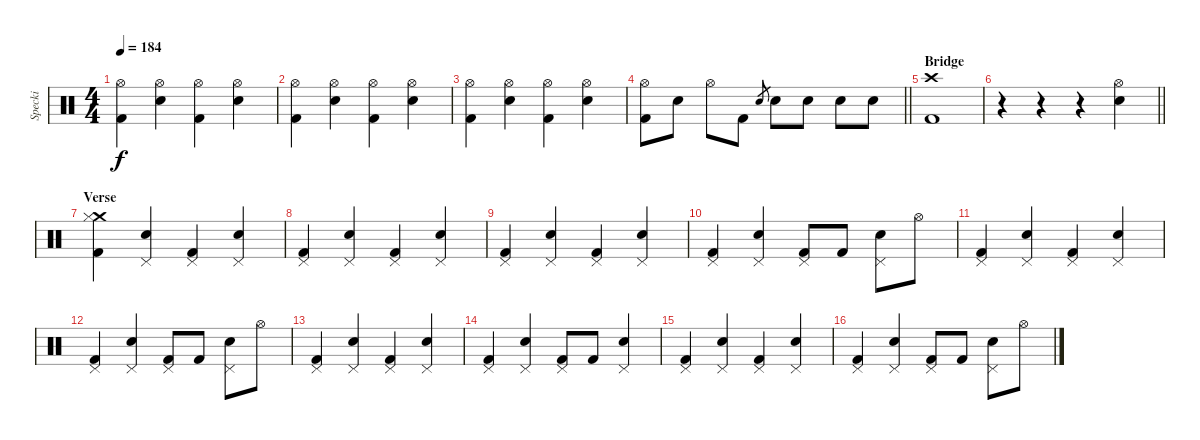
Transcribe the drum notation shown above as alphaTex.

\track ("Specki" "Specki") {instrument percussion}
\staff {score}
\articulation defaults
\ts (4 4)
\tempo 184
\clef neutral
\ks c
("Hi-Hat (open)" "Kick (hit) 2").4{dy f} ("Hi-Hat (open)" "Electric Snare (hit)").4 ("Hi-Hat (open)" "Kick (hit) 2").4 ("Hi-Hat (open)" "Electric Snare (hit)").4 |
("Hi-Hat (open)" "Kick (hit) 2").4 ("Hi-Hat (open)" "Electric Snare (hit)").4 ("Hi-Hat (open)" "Kick (hit) 2").4 ("Hi-Hat (open)" "Electric Snare (hit)").4 |
("Hi-Hat (open)" "Kick (hit) 2").4 ("Hi-Hat (open)" "Electric Snare (hit)").4 ("Hi-Hat (open)" "Kick (hit) 2").4 ("Hi-Hat (open)" "Electric Snare (hit)").4 |
\barLineRight lightlight
("Hi-Hat (open)" "Kick (hit) 2").8 "Electric Snare (hit)".8 "Hi-Hat (open)".8 "Kick (hit) 2".8 "Electric Snare (hit)".8{gr} "Electric Snare (hit)".8 "Electric Snare (hit)".8 "Electric Snare (hit)".8 "Electric Snare (hit)".8 |
\section ("" "Bridge")
("Crash high (hit)" "Kick (hit) 2").1 |
\barLineRight lightlight
r.4 r.4 r.4 ("Hi-Hat (open)" "Electric Snare (hit)").4 |
\section ("" "Verse")
("Crash medium (hit)" "Hi-Hat (closed)" "Kick (hit) 2").4 ("Pedal Hi-Hat (hit)" "Electric Snare (hit)").4 ("Pedal Hi-Hat (hit)" "Kick (hit) 2").4 ("Pedal Hi-Hat (hit)" "Electric Snare (hit)").4 |
("Pedal Hi-Hat (hit)" "Kick (hit) 2").4 ("Pedal Hi-Hat (hit)" "Electric Snare (hit)").4 ("Pedal Hi-Hat (hit)" "Kick (hit) 2").4 ("Pedal Hi-Hat (hit)" "Electric Snare (hit)").4 |
("Pedal Hi-Hat (hit)" "Kick (hit) 2").4 ("Pedal Hi-Hat (hit)" "Electric Snare (hit)").4 ("Pedal Hi-Hat (hit)" "Kick (hit) 2").4 ("Pedal Hi-Hat (hit)" "Electric Snare (hit)").4 |
("Pedal Hi-Hat (hit)" "Kick (hit) 2").4 ("Pedal Hi-Hat (hit)" "Electric Snare (hit)").4 ("Pedal Hi-Hat (hit)" "Kick (hit) 2").8 "Kick (hit) 2".8 ("Pedal Hi-Hat (hit)" "Electric Snare (hit)").8 "Hi-Hat (open)".8 |
("Pedal Hi-Hat (hit)" "Kick (hit) 2").4 ("Pedal Hi-Hat (hit)" "Electric Snare (hit)").4 ("Pedal Hi-Hat (hit)" "Kick (hit) 2").4 ("Pedal Hi-Hat (hit)" "Electric Snare (hit)").4 |
("Pedal Hi-Hat (hit)" "Kick (hit) 2").4 ("Pedal Hi-Hat (hit)" "Electric Snare (hit)").4 ("Pedal Hi-Hat (hit)" "Kick (hit) 2").8 "Kick (hit) 2".8 ("Pedal Hi-Hat (hit)" "Electric Snare (hit)").8 "Hi-Hat (open)".8 |
("Pedal Hi-Hat (hit)" "Kick (hit) 2").4 ("Pedal Hi-Hat (hit)" "Electric Snare (hit)").4 ("Pedal Hi-Hat (hit)" "Kick (hit) 2").4 ("Pedal Hi-Hat (hit)" "Electric Snare (hit)").4 |
("Pedal Hi-Hat (hit)" "Kick (hit) 2").4 ("Pedal Hi-Hat (hit)" "Electric Snare (hit)").4 ("Pedal Hi-Hat (hit)" "Kick (hit) 2").8 "Kick (hit) 2".8 ("Pedal Hi-Hat (hit)" "Electric Snare (hit)").4 |
("Pedal Hi-Hat (hit)" "Kick (hit) 2").4 ("Pedal Hi-Hat (hit)" "Electric Snare (hit)").4 ("Pedal Hi-Hat (hit)" "Kick (hit) 2").4 ("Pedal Hi-Hat (hit)" "Electric Snare (hit)").4 |
("Pedal Hi-Hat (hit)" "Kick (hit) 2").4 ("Pedal Hi-Hat (hit)" "Electric Snare (hit)").4 ("Pedal Hi-Hat (hit)" "Kick (hit) 2").8 "Kick (hit) 2".8 ("Pedal Hi-Hat (hit)" "Electric Snare (hit)").8 "Hi-Hat (open)".8
